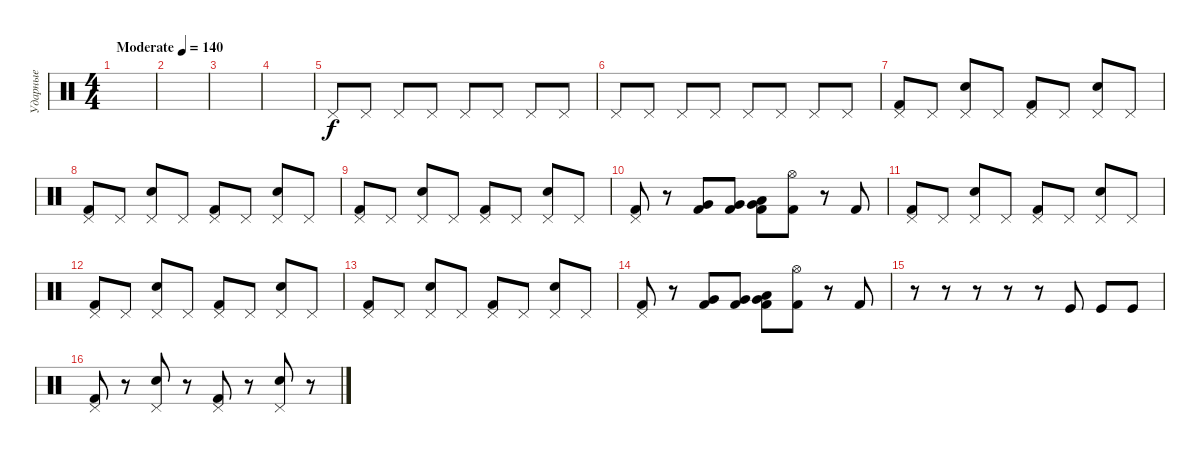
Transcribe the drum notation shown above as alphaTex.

\track ("Ударные" "Ударные") {instrument percussion}
\staff
\articulation defaults
\ts (4 4)
\tempo (140 "Moderate")
\clef neutral
\ks c
|
|
|
|
"Pedal Hi-Hat (hit)".8 "Pedal Hi-Hat (hit)".8 "Pedal Hi-Hat (hit)".8 "Pedal Hi-Hat (hit)".8 "Pedal Hi-Hat (hit)".8 "Pedal Hi-Hat (hit)".8 "Pedal Hi-Hat (hit)".8 "Pedal Hi-Hat (hit)".8 |
"Pedal Hi-Hat (hit)".8 "Pedal Hi-Hat (hit)".8 "Pedal Hi-Hat (hit)".8 "Pedal Hi-Hat (hit)".8 "Pedal Hi-Hat (hit)".8 "Pedal Hi-Hat (hit)".8 "Pedal Hi-Hat (hit)".8 "Pedal Hi-Hat (hit)".8 |
("Pedal Hi-Hat (hit)" "Kick (hit) 2").8 "Pedal Hi-Hat (hit)".8 ("Pedal Hi-Hat (hit)" "Snare (hit) 2").8 "Pedal Hi-Hat (hit)".8 ("Pedal Hi-Hat (hit)" "Kick (hit) 2").8 "Pedal Hi-Hat (hit)".8 ("Pedal Hi-Hat (hit)" "Snare (hit) 2").8 "Pedal Hi-Hat (hit)".8 |
("Pedal Hi-Hat (hit)" "Kick (hit) 2").8 "Pedal Hi-Hat (hit)".8 ("Pedal Hi-Hat (hit)" "Snare (hit) 2").8 "Pedal Hi-Hat (hit)".8 ("Pedal Hi-Hat (hit)" "Kick (hit) 2").8 "Pedal Hi-Hat (hit)".8 ("Pedal Hi-Hat (hit)" "Snare (hit) 2").8 "Pedal Hi-Hat (hit)".8 |
("Pedal Hi-Hat (hit)" "Kick (hit) 2").8 "Pedal Hi-Hat (hit)".8 ("Pedal Hi-Hat (hit)" "Snare (hit) 2").8 "Pedal Hi-Hat (hit)".8 ("Pedal Hi-Hat (hit)" "Kick (hit) 2").8 "Pedal Hi-Hat (hit)".8 ("Pedal Hi-Hat (hit)" "Snare (hit) 2").8 "Pedal Hi-Hat (hit)".8 |
("Pedal Hi-Hat (hit)" "Kick (hit) 2").8 r.8 ("Very Low Tom (hit)" "Kick (hit) 2").8 ("Very Low Tom (hit)" "Kick (hit) 2").8 ("Very Low Tom (hit)" "Low Tom (hit)" "Kick (hit) 2").8 ("Hi-Hat (open)" "Kick (hit) 2").8 r.8 "Kick (hit) 2".8 |
("Pedal Hi-Hat (hit)" "Kick (hit) 2").8 "Pedal Hi-Hat (hit)".8 ("Pedal Hi-Hat (hit)" "Snare (hit) 2").8 "Pedal Hi-Hat (hit)".8 ("Pedal Hi-Hat (hit)" "Kick (hit) 2").8 "Pedal Hi-Hat (hit)".8 ("Pedal Hi-Hat (hit)" "Snare (hit) 2").8 "Pedal Hi-Hat (hit)".8 |
("Pedal Hi-Hat (hit)" "Kick (hit) 2").8 "Pedal Hi-Hat (hit)".8 ("Pedal Hi-Hat (hit)" "Snare (hit) 2").8 "Pedal Hi-Hat (hit)".8 ("Pedal Hi-Hat (hit)" "Kick (hit) 2").8 "Pedal Hi-Hat (hit)".8 ("Pedal Hi-Hat (hit)" "Snare (hit) 2").8 "Pedal Hi-Hat (hit)".8 |
("Pedal Hi-Hat (hit)" "Kick (hit) 2").8 "Pedal Hi-Hat (hit)".8 ("Pedal Hi-Hat (hit)" "Snare (hit) 2").8 "Pedal Hi-Hat (hit)".8 ("Pedal Hi-Hat (hit)" "Kick (hit) 2").8 "Pedal Hi-Hat (hit)".8 ("Pedal Hi-Hat (hit)" "Snare (hit) 2").8 "Pedal Hi-Hat (hit)".8 |
("Pedal Hi-Hat (hit)" "Kick (hit) 2").8 r.8 ("Very Low Tom (hit)" "Kick (hit) 2").8 ("Very Low Tom (hit)" "Kick (hit) 2").8 ("Very Low Tom (hit)" "Low Tom (hit)" "Kick (hit) 2").8 ("Hi-Hat (open)" "Kick (hit) 2").8 r.8 "Kick (hit) 2".8 |
r.8 r.8 r.8 r.8 r.8 "Kick (hit)".8 "Kick (hit)".8 "Kick (hit)".8 |
("Pedal Hi-Hat (hit)" "Kick (hit) 2").8 r.8 ("Pedal Hi-Hat (hit)" "Snare (hit) 2").8 r.8 ("Pedal Hi-Hat (hit)" "Kick (hit) 2").8 r.8 ("Pedal Hi-Hat (hit)" "Snare (hit) 2").8 r.8
